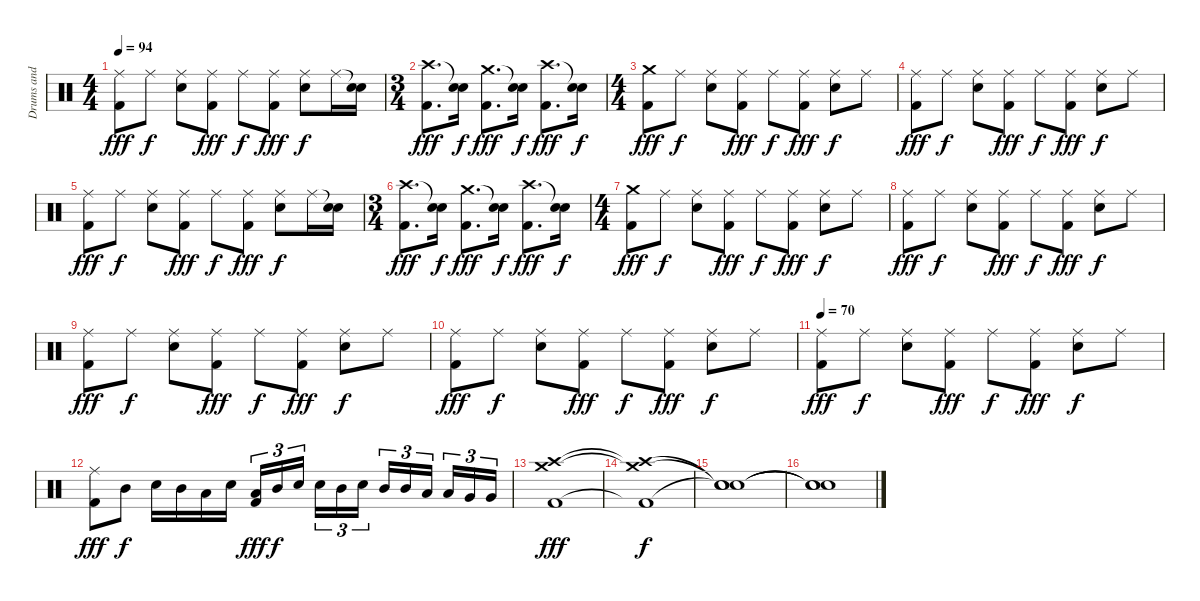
\track ("Drums and Percussion" "Drums and ") {instrument percussion}
\staff {score}
\articulation defaults
\ts (4 4)
\tempo 94
\clef neutral
\ks c
("Ride (middle)" "Kick (hit) 2").8{dy fff} "Ride (middle)".8{dy f} ("Ride (middle)" "Snare (hit) 2").8 ("Ride (middle)" "Kick (hit) 2").8{dy fff} "Ride (middle)".8{dy f} ("Ride (middle)" "Kick (hit) 2").8{dy fff} ("Ride (middle)" "Snare (hit) 2").8{dy f} "Ride (middle)".16 ("Snare (hit)"{t} "Snare (hit) 2").16 |
\ts (3 4)
("Crash high (hit)" "Kick (hit) 2").8{d dy fff} ("Snare (hit)"{t} "Snare (hit) 2").16{dy f} ("Crash medium (hit)" "Kick (hit) 2").8{d dy fff} ("Snare (hit)"{t} "Snare (hit) 2").16{dy f} ("Crash high (hit)" "Kick (hit) 2").8{d dy fff} ("Snare (hit)"{t} "Snare (hit) 2").16{dy f} |
\ts (4 4)
("Crash medium (hit)" "Kick (hit) 2").8{dy fff} "Ride (middle)".8{dy f} ("Ride (middle)" "Snare (hit) 2").8 ("Ride (middle)" "Kick (hit) 2").8{dy fff} "Ride (middle)".8{dy f} ("Ride (middle)" "Kick (hit) 2").8{dy fff} ("Ride (middle)" "Snare (hit) 2").8{dy f} "Ride (middle)".8 |
("Ride (middle)" "Kick (hit) 2").8{dy fff} "Ride (middle)".8{dy f} ("Ride (middle)" "Snare (hit) 2").8 ("Ride (middle)" "Kick (hit) 2").8{dy fff} "Ride (middle)".8{dy f} ("Ride (middle)" "Kick (hit) 2").8{dy fff} ("Ride (middle)" "Snare (hit) 2").8{dy f} "Ride (middle)".8 |
("Ride (middle)" "Kick (hit) 2").8{dy fff} "Ride (middle)".8{dy f} ("Ride (middle)" "Snare (hit) 2").8 ("Ride (middle)" "Kick (hit) 2").8{dy fff} "Ride (middle)".8{dy f} ("Ride (middle)" "Kick (hit) 2").8{dy fff} ("Ride (middle)" "Snare (hit) 2").8{dy f} "Ride (middle)".16 ("Snare (hit)"{t} "Snare (hit) 2").16 |
\ts (3 4)
("Crash high (hit)" "Kick (hit) 2").8{d dy fff} ("Snare (hit)"{t} "Snare (hit) 2").16{dy f} ("Crash medium (hit)" "Kick (hit) 2").8{d dy fff} ("Snare (hit)"{t} "Snare (hit) 2").16{dy f} ("Crash high (hit)" "Kick (hit) 2").8{d dy fff} ("Snare (hit)"{t} "Snare (hit) 2").16{dy f} |
\ts (4 4)
("Crash medium (hit)" "Kick (hit) 2").8{dy fff} "Ride (middle)".8{dy f} ("Ride (middle)" "Snare (hit) 2").8 ("Ride (middle)" "Kick (hit) 2").8{dy fff} "Ride (middle)".8{dy f} ("Ride (middle)" "Kick (hit) 2").8{dy fff} ("Ride (middle)" "Snare (hit) 2").8{dy f} "Ride (middle)".8 |
("Ride (middle)" "Kick (hit) 2").8{dy fff} "Ride (middle)".8{dy f} ("Ride (middle)" "Snare (hit) 2").8 ("Ride (middle)" "Kick (hit) 2").8{dy fff} "Ride (middle)".8{dy f} ("Ride (middle)" "Kick (hit) 2").8{dy fff} ("Ride (middle)" "Snare (hit) 2").8{dy f} "Ride (middle)".8 |
("Ride (middle)" "Kick (hit) 2").8{dy fff} "Ride (middle)".8{dy f} ("Ride (middle)" "Snare (hit) 2").8 ("Ride (middle)" "Kick (hit) 2").8{dy fff} "Ride (middle)".8{dy f} ("Ride (middle)" "Kick (hit) 2").8{dy fff} ("Ride (middle)" "Snare (hit) 2").8{dy f} "Ride (middle)".8 |
("Ride (middle)" "Kick (hit) 2").8{dy fff} "Ride (middle)".8{dy f} ("Ride (middle)" "Snare (hit) 2").8 ("Ride (middle)" "Kick (hit) 2").8{dy fff} "Ride (middle)".8{dy f} ("Ride (middle)" "Kick (hit) 2").8{dy fff} ("Ride (middle)" "Snare (hit) 2").8{dy f} "Ride (middle)".8 |
\tempo 70
("Ride (middle)" "Kick (hit) 2").8{dy fff} "Ride (middle)".8{dy f} ("Ride (middle)" "Snare (hit) 2").8 ("Ride (middle)" "Kick (hit) 2").8{dy fff} "Ride (middle)".8{dy f} ("Ride (middle)" "Kick (hit) 2").8{dy fff} ("Ride (middle)" "Snare (hit) 2").8{dy f} "Ride (middle)".8 |
("Ride (middle)" "Kick (hit) 2").8{dy fff} "Mid Tom (hit)".8{dy f} "Snare (hit) 2".16 "Mid Tom (hit)".16 "Low Tom (hit)".16 "Snare (hit) 2".16 ("Low Tom (hit)" "Kick (hit) 2").16{tu (3 2) dy fff} "Mid Tom (hit)".16{tu (3 2) dy f} "Snare (hit) 2".16{tu (3 2)} "Snare (hit) 2".16{tu (3 2)} "Mid Tom (hit)".16{tu (3 2)} "Snare (hit) 2".16{tu (3 2)} "Mid Tom (hit)".16{tu (3 2)} "Mid Tom (hit)".16{tu (3 2)} "Low Tom (hit)".16{tu (3 2)} "Low Tom (hit)".16{tu (3 2)} "Very Low Tom (hit)".16{tu (3 2)} "Very Low Tom (hit)".16{tu (3 2)} |
("Crash medium (hit)" "Crash high (hit)" "Kick (hit) 2").1{dy fff volume 0} |
("Crash medium (hit)"{t} "Crash high (hit)"{t} "Kick (hit) 2"{t}).1{dy f} |
("Snare (hit)"{t} "Snare (hit)"{t} "Snare (hit)"{t}).1 |
("Snare (hit)"{t} "Snare (hit)"{t} "Snare (hit)"{t}).1
